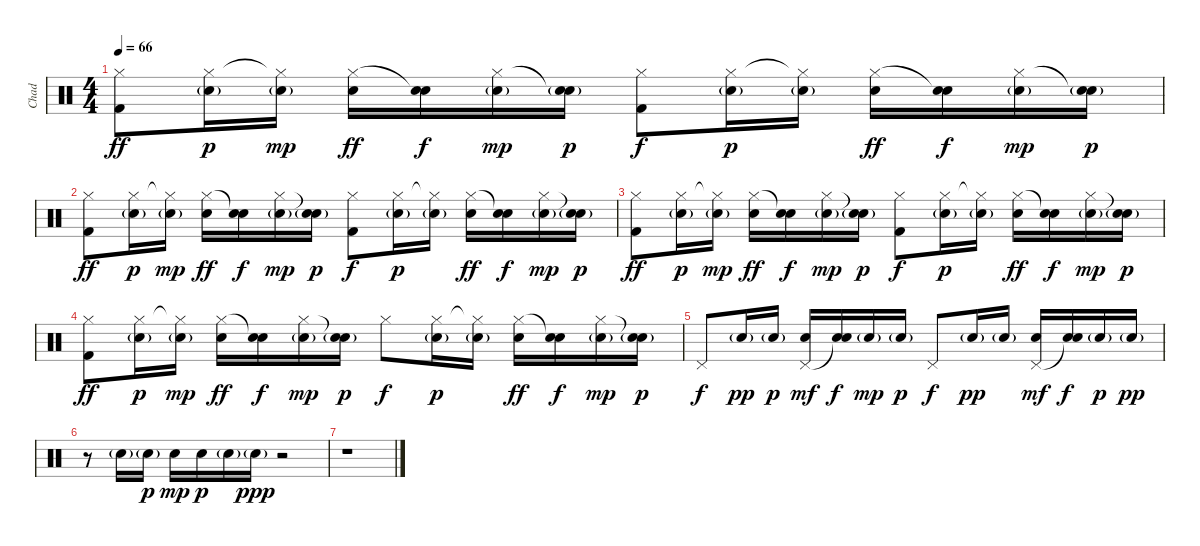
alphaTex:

\track ("Chad" "Chad") {instrument percussion}
\staff {score}
\articulation defaults
\ts (4 4)
\tempo 66
\clef neutral
\ks c
("Hi-Hat (closed)" "Kick (hit) 2").8{dy ff volume 12} ("Hi-Hat (closed)" "Snare (hit) 2"{g}).16{dy p} ("Hi-Hat (closed)"{t} "Snare (hit) 2"{g}).16{dy mp} ("Hi-Hat (closed)" "Snare (hit) 2").16{dy ff} ("Snare (hit)"{t} "Snare (hit) 2").16{dy f} ("Hi-Hat (closed)" "Snare (hit) 2"{g}).16{dy mp} ("Snare (hit)"{t} "Snare (hit) 2"{g}).16{dy p} ("Hi-Hat (closed)" "Kick (hit) 2").8{dy f} ("Hi-Hat (closed)" "Snare (hit) 2"{g}).16{dy p} ("Hi-Hat (closed)"{t} "Snare (hit) 2"{g}).16 ("Hi-Hat (closed)" "Snare (hit) 2").16{dy ff} ("Snare (hit)"{t} "Snare (hit) 2").16{dy f} ("Hi-Hat (closed)" "Snare (hit) 2"{g}).16{dy mp} ("Snare (hit)"{t} "Snare (hit) 2"{g}).16{dy p} |
("Hi-Hat (closed)" "Kick (hit) 2").8{dy ff volume 12} ("Hi-Hat (closed)" "Snare (hit) 2"{g}).16{dy p} ("Hi-Hat (closed)"{t} "Snare (hit) 2"{g}).16{dy mp} ("Hi-Hat (closed)" "Snare (hit) 2").16{dy ff} ("Snare (hit)"{t} "Snare (hit) 2").16{dy f} ("Hi-Hat (closed)" "Snare (hit) 2"{g}).16{dy mp} ("Snare (hit)"{t} "Snare (hit) 2"{g}).16{dy p} ("Hi-Hat (closed)" "Kick (hit) 2").8{dy f} ("Hi-Hat (closed)" "Snare (hit) 2"{g}).16{dy p} ("Hi-Hat (closed)"{t} "Snare (hit) 2"{g}).16 ("Hi-Hat (closed)" "Snare (hit) 2").16{dy ff} ("Snare (hit)"{t} "Snare (hit) 2").16{dy f} ("Hi-Hat (closed)" "Snare (hit) 2"{g}).16{dy mp} ("Snare (hit)"{t} "Snare (hit) 2"{g}).16{dy p} |
("Hi-Hat (closed)" "Kick (hit) 2").8{dy ff volume 12} ("Hi-Hat (closed)" "Snare (hit) 2"{g}).16{dy p} ("Hi-Hat (closed)"{t} "Snare (hit) 2"{g}).16{dy mp} ("Hi-Hat (closed)" "Snare (hit) 2").16{dy ff} ("Snare (hit)"{t} "Snare (hit) 2").16{dy f} ("Hi-Hat (closed)" "Snare (hit) 2"{g}).16{dy mp} ("Snare (hit)"{t} "Snare (hit) 2"{g}).16{dy p} ("Hi-Hat (closed)" "Kick (hit) 2").8{dy f} ("Hi-Hat (closed)" "Snare (hit) 2"{g}).16{dy p} ("Hi-Hat (closed)"{t} "Snare (hit) 2"{g}).16 ("Hi-Hat (closed)" "Snare (hit) 2").16{dy ff} ("Snare (hit)"{t} "Snare (hit) 2").16{dy f} ("Hi-Hat (closed)" "Snare (hit) 2"{g}).16{dy mp} ("Snare (hit)"{t} "Snare (hit) 2"{g}).16{dy p} |
("Hi-Hat (closed)" "Kick (hit) 2").8{dy ff volume 12} ("Hi-Hat (closed)" "Snare (hit) 2"{g}).16{dy p} ("Hi-Hat (closed)"{t} "Snare (hit) 2"{g}).16{dy mp} ("Hi-Hat (closed)" "Snare (hit) 2").16{dy ff} ("Snare (hit)"{t} "Snare (hit) 2").16{dy f} ("Hi-Hat (closed)" "Snare (hit) 2"{g}).16{dy mp} ("Snare (hit)"{t} "Snare (hit) 2"{g}).16{dy p} "Hi-Hat (closed)".8{dy f} ("Hi-Hat (closed)" "Snare (hit) 2"{g}).16{dy p} ("Hi-Hat (closed)"{t} "Snare (hit) 2"{g}).16 ("Hi-Hat (closed)" "Snare (hit) 2").16{dy ff} ("Snare (hit)"{t} "Snare (hit) 2").16{dy f} ("Hi-Hat (closed)" "Snare (hit) 2"{g}).16{dy mp} ("Snare (hit)"{t} "Snare (hit) 2"{g}).16{dy p} |
"Pedal Hi-Hat (hit)".8{dy f} "Snare (hit) 2"{g}.16{dy pp} "Snare (hit) 2"{g}.16{dy p} ("Pedal Hi-Hat (hit)" "Snare (hit) 2").16{dy mf} ("Snare (hit)"{t} "Snare (hit) 2").16{dy f} "Snare (hit) 2"{g}.16{dy mp} "Snare (hit) 2"{g}.16{dy p} "Pedal Hi-Hat (hit)".8{dy f} "Snare (hit) 2"{g}.16{dy pp} "Snare (hit) 2"{g}.16 ("Pedal Hi-Hat (hit)" "Snare (hit) 2").16{dy mf} ("Snare (hit)"{t} "Snare (hit) 2").16{dy f} "Snare (hit) 2"{g}.16{dy p} "Snare (hit) 2"{g}.16{dy pp} |
r.8 "Snare (hit) 2"{g}.16 "Snare (hit) 2"{g}.16{dy p} "Snare (hit) 2".16{dy mp} "Snare (hit) 2".16{dy p} "Snare (hit) 2"{g}.16 "Snare (hit) 2"{g}.16{dy ppp} r.2 |
r.1
